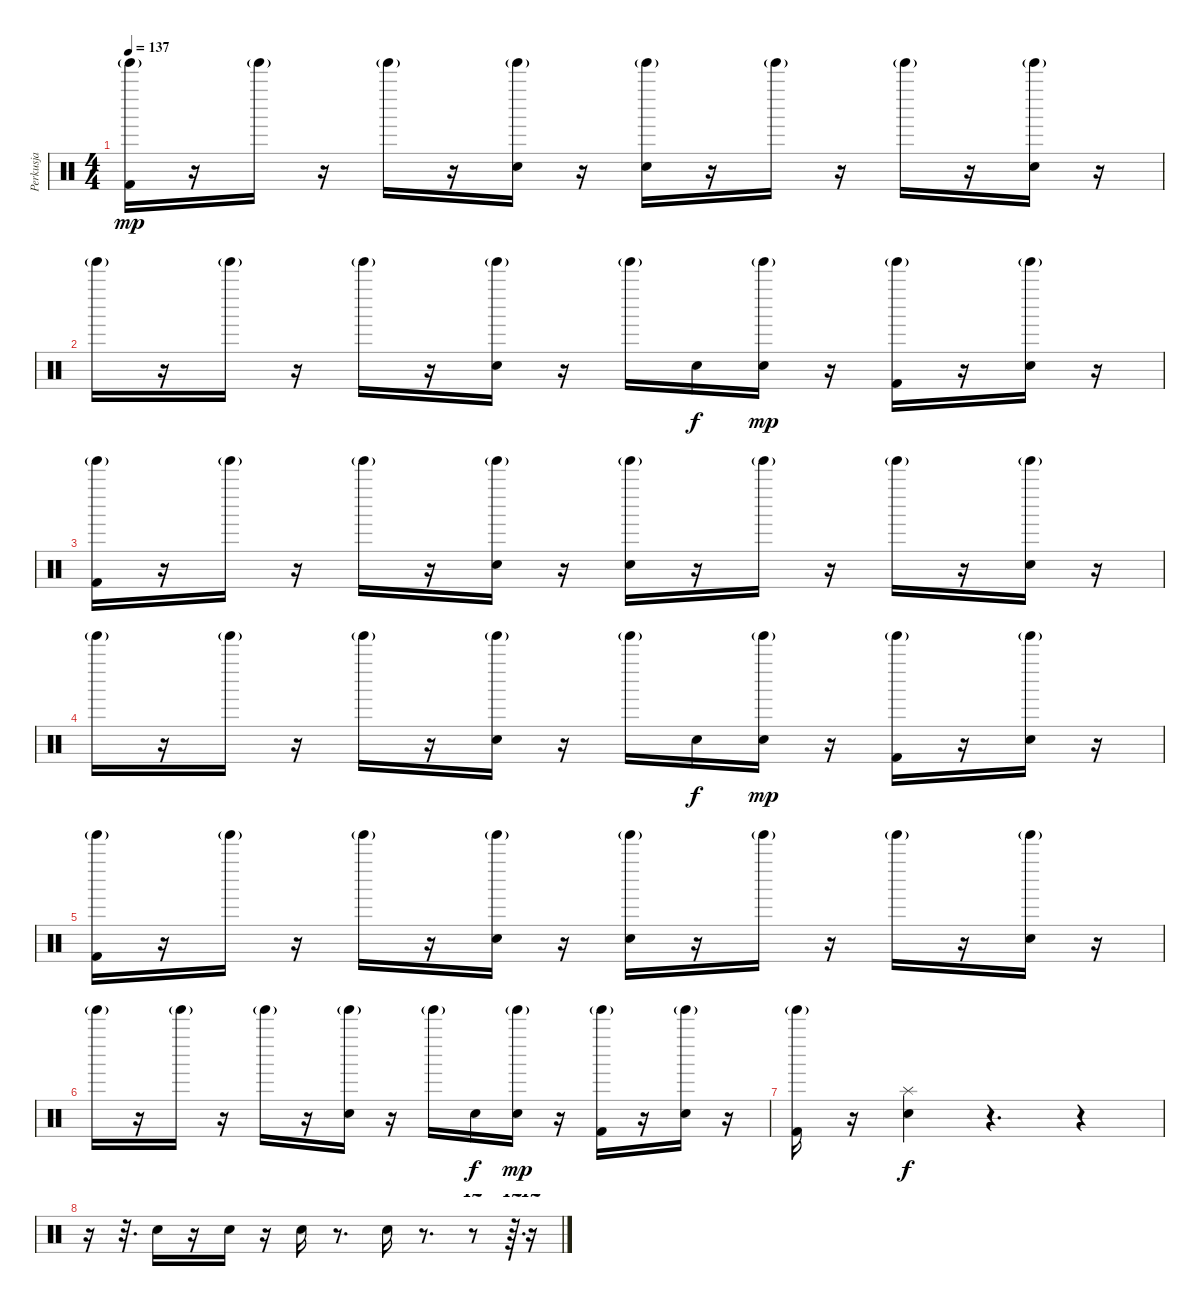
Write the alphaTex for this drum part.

\track ("Perkusja" "Perkusja") {instrument percussion}
\staff {score}
\articulation defaults
\ts (4 4)
\tempo 137
\clef neutral
\ks c
("Kick (hit) 2" "Tinkle Bell (hit)"{g}).16{dy mp} r.16 "Tinkle Bell (hit)"{g}.16 r.16 "Tinkle Bell (hit)"{g}.16 r.16 ("Electric Snare (hit)" "Tinkle Bell (hit)"{g}).16 r.16 ("Electric Snare (hit)" "Tinkle Bell (hit)"{g}).16 r.16 "Tinkle Bell (hit)"{g}.16 r.16 "Tinkle Bell (hit)"{g}.16 r.16 ("Electric Snare (hit)" "Tinkle Bell (hit)"{g}).16 r.16 |
"Tinkle Bell (hit)"{g}.16 r.16 "Tinkle Bell (hit)"{g}.16 r.16 "Tinkle Bell (hit)"{g}.16 r.16 ("Electric Snare (hit)" "Tinkle Bell (hit)"{g}).16 r.16 "Tinkle Bell (hit)"{g}.16 "Electric Snare (hit)".16{dy f} ("Electric Snare (hit)" "Tinkle Bell (hit)"{g}).16{dy mp} r.16 ("Kick (hit) 2" "Tinkle Bell (hit)"{g}).16 r.16 ("Electric Snare (hit)" "Tinkle Bell (hit)"{g}).16 r.16 |
("Kick (hit) 2" "Tinkle Bell (hit)"{g}).16 r.16 "Tinkle Bell (hit)"{g}.16 r.16 "Tinkle Bell (hit)"{g}.16 r.16 ("Electric Snare (hit)" "Tinkle Bell (hit)"{g}).16 r.16 ("Electric Snare (hit)" "Tinkle Bell (hit)"{g}).16 r.16 "Tinkle Bell (hit)"{g}.16 r.16 "Tinkle Bell (hit)"{g}.16 r.16 ("Electric Snare (hit)" "Tinkle Bell (hit)"{g}).16 r.16 |
"Tinkle Bell (hit)"{g}.16 r.16 "Tinkle Bell (hit)"{g}.16 r.16 "Tinkle Bell (hit)"{g}.16 r.16 ("Electric Snare (hit)" "Tinkle Bell (hit)"{g}).16 r.16 "Tinkle Bell (hit)"{g}.16 "Electric Snare (hit)".16{dy f} ("Electric Snare (hit)" "Tinkle Bell (hit)"{g}).16{dy mp} r.16 ("Kick (hit) 2" "Tinkle Bell (hit)"{g}).16 r.16 ("Electric Snare (hit)" "Tinkle Bell (hit)"{g}).16 r.16 |
("Kick (hit) 2" "Tinkle Bell (hit)"{g}).16 r.16 "Tinkle Bell (hit)"{g}.16 r.16 "Tinkle Bell (hit)"{g}.16 r.16 ("Electric Snare (hit)" "Tinkle Bell (hit)"{g}).16 r.16 ("Electric Snare (hit)" "Tinkle Bell (hit)"{g}).16 r.16 "Tinkle Bell (hit)"{g}.16 r.16 "Tinkle Bell (hit)"{g}.16 r.16 ("Electric Snare (hit)" "Tinkle Bell (hit)"{g}).16 r.16 |
"Tinkle Bell (hit)"{g}.16 r.16 "Tinkle Bell (hit)"{g}.16 r.16 "Tinkle Bell (hit)"{g}.16 r.16 ("Electric Snare (hit)" "Tinkle Bell (hit)"{g}).16 r.16 "Tinkle Bell (hit)"{g}.16 "Electric Snare (hit)".16{dy f} ("Electric Snare (hit)" "Tinkle Bell (hit)"{g}).16{dy mp} r.16 ("Kick (hit) 2" "Tinkle Bell (hit)"{g}).16 r.16 ("Electric Snare (hit)" "Tinkle Bell (hit)"{g}).16 r.16 |
("Kick (hit) 2" "Tinkle Bell (hit)"{g}).16 r.16 ("Electric Snare (hit)" "Splash (hit)").4{dy f} r.4{d} r.4 |
r.16 r.32{d} "Electric Snare (hit)".16 r.16 "Electric Snare (hit)".16 r.16 "Electric Snare (hit)".16 r.8{d} "Electric Snare (hit)".16 r.8{d} r.8{tu (12 8)} r.64{d tu (12 8)} r.16{tu (12 8)}
